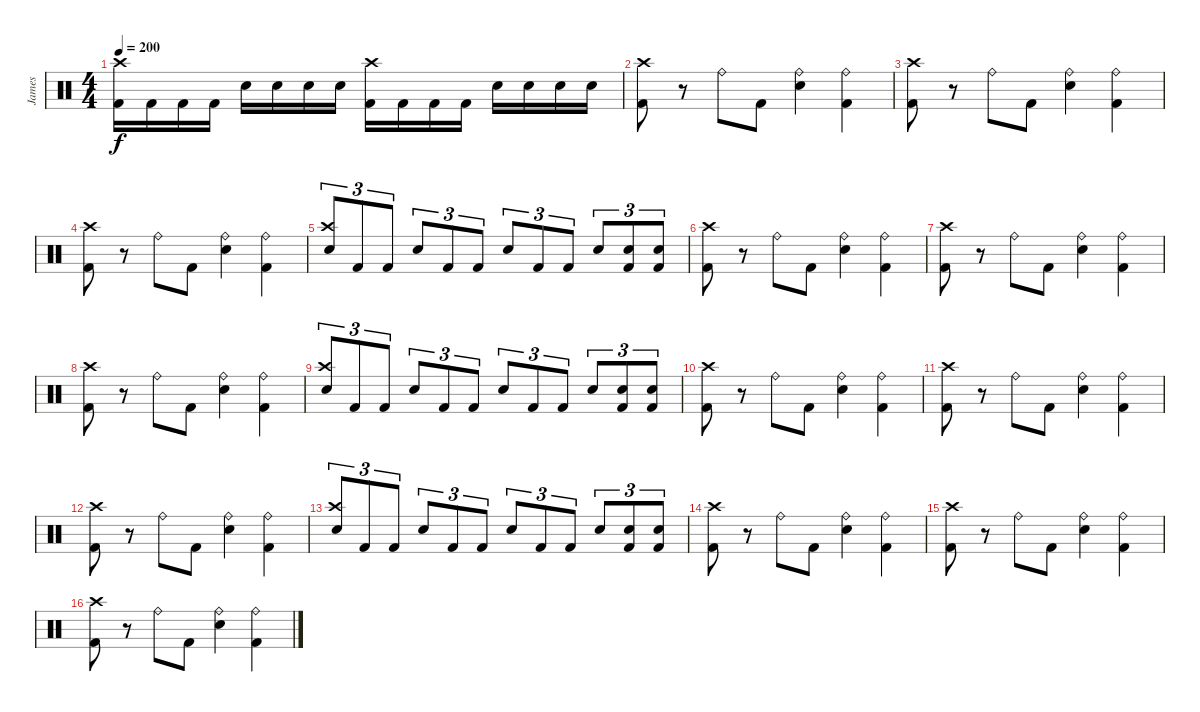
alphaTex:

\track ("James" "James") {instrument percussion}
\staff {score}
\articulation defaults
\ts (4 4)
\tempo 200
\clef neutral
\ks c
("Kick (hit) 2" "Crash high (hit)").16{dy f} "Kick (hit) 2".16 "Kick (hit) 2".16 "Kick (hit) 2".16 "Electric Snare (hit)".16 "Electric Snare (hit)".16 "Electric Snare (hit)".16 "Electric Snare (hit)".16 ("Kick (hit) 2" "Crash high (hit)").16 "Kick (hit) 2".16 "Kick (hit) 2".16 "Kick (hit) 2".16 "Electric Snare (hit)".16 "Electric Snare (hit)".16 "Electric Snare (hit)".16 "Electric Snare (hit)".16 |
("Crash high (hit)" "Kick (hit) 2").8 r.8 "Ride (bell)".8 "Kick (hit) 2".8 ("Ride (bell)" "Electric Snare (hit)").4 ("Ride (bell)" "Kick (hit) 2").4 |
("Crash high (hit)" "Kick (hit) 2").8 r.8 "Ride (bell)".8 "Kick (hit) 2".8 ("Ride (bell)" "Electric Snare (hit)").4 ("Ride (bell)" "Kick (hit) 2").4 |
("Crash high (hit)" "Kick (hit) 2").8 r.8 "Ride (bell)".8 "Kick (hit) 2".8 ("Ride (bell)" "Electric Snare (hit)").4 ("Ride (bell)" "Kick (hit) 2").4 |
("Electric Snare (hit)" "Crash high (hit)").8{tu (3 2) beam Up} "Kick (hit) 2".8{tu (3 2)} "Kick (hit) 2".8{tu (3 2)} "Electric Snare (hit)".8{tu (3 2) beam Up} "Kick (hit) 2".8{tu (3 2)} "Kick (hit) 2".8{tu (3 2)} "Electric Snare (hit)".8{tu (3 2) beam Up} "Kick (hit) 2".8{tu (3 2)} "Kick (hit) 2".8{tu (3 2)} "Electric Snare (hit)".8{tu (3 2) beam Up} ("Kick (hit) 2" "Electric Snare (hit)").8{tu (3 2)} ("Electric Snare (hit)" "Kick (hit) 2").8{tu (3 2)} |
("Crash high (hit)" "Kick (hit) 2").8 r.8 "Ride (bell)".8 "Kick (hit) 2".8 ("Ride (bell)" "Electric Snare (hit)").4 ("Ride (bell)" "Kick (hit) 2").4 |
("Crash high (hit)" "Kick (hit) 2").8 r.8 "Ride (bell)".8 "Kick (hit) 2".8 ("Ride (bell)" "Electric Snare (hit)").4 ("Ride (bell)" "Kick (hit) 2").4 |
("Crash high (hit)" "Kick (hit) 2").8 r.8 "Ride (bell)".8 "Kick (hit) 2".8 ("Ride (bell)" "Electric Snare (hit)").4 ("Ride (bell)" "Kick (hit) 2").4 |
("Electric Snare (hit)" "Crash high (hit)").8{tu (3 2) beam Up} "Kick (hit) 2".8{tu (3 2)} "Kick (hit) 2".8{tu (3 2)} "Electric Snare (hit)".8{tu (3 2) beam Up} "Kick (hit) 2".8{tu (3 2)} "Kick (hit) 2".8{tu (3 2)} "Electric Snare (hit)".8{tu (3 2) beam Up} "Kick (hit) 2".8{tu (3 2)} "Kick (hit) 2".8{tu (3 2)} "Electric Snare (hit)".8{tu (3 2) beam Up} ("Kick (hit) 2" "Electric Snare (hit)").8{tu (3 2)} ("Electric Snare (hit)" "Kick (hit) 2").8{tu (3 2)} |
("Crash high (hit)" "Kick (hit) 2").8 r.8 "Ride (bell)".8 "Kick (hit) 2".8 ("Ride (bell)" "Electric Snare (hit)").4 ("Ride (bell)" "Kick (hit) 2").4 |
("Crash high (hit)" "Kick (hit) 2").8 r.8 "Ride (bell)".8 "Kick (hit) 2".8 ("Ride (bell)" "Electric Snare (hit)").4 ("Ride (bell)" "Kick (hit) 2").4 |
("Crash high (hit)" "Kick (hit) 2").8 r.8 "Ride (bell)".8 "Kick (hit) 2".8 ("Ride (bell)" "Electric Snare (hit)").4 ("Ride (bell)" "Kick (hit) 2").4 |
("Electric Snare (hit)" "Crash high (hit)").8{tu (3 2) beam Up} "Kick (hit) 2".8{tu (3 2)} "Kick (hit) 2".8{tu (3 2)} "Electric Snare (hit)".8{tu (3 2) beam Up} "Kick (hit) 2".8{tu (3 2)} "Kick (hit) 2".8{tu (3 2)} "Electric Snare (hit)".8{tu (3 2) beam Up} "Kick (hit) 2".8{tu (3 2)} "Kick (hit) 2".8{tu (3 2)} "Electric Snare (hit)".8{tu (3 2) beam Up} ("Kick (hit) 2" "Electric Snare (hit)").8{tu (3 2)} ("Electric Snare (hit)" "Kick (hit) 2").8{tu (3 2)} |
("Crash high (hit)" "Kick (hit) 2").8 r.8 "Ride (bell)".8 "Kick (hit) 2".8 ("Ride (bell)" "Electric Snare (hit)").4 ("Ride (bell)" "Kick (hit) 2").4 |
("Crash high (hit)" "Kick (hit) 2").8 r.8 "Ride (bell)".8 "Kick (hit) 2".8 ("Ride (bell)" "Electric Snare (hit)").4 ("Ride (bell)" "Kick (hit) 2").4 |
("Crash high (hit)" "Kick (hit) 2").8 r.8 "Ride (bell)".8 "Kick (hit) 2".8 ("Ride (bell)" "Electric Snare (hit)").4 ("Ride (bell)" "Kick (hit) 2").4
